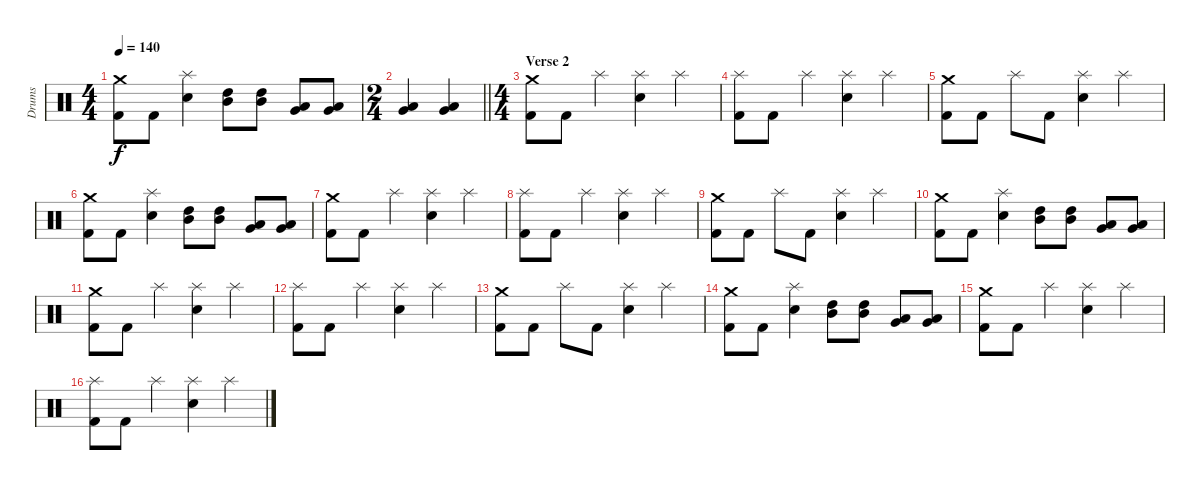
\track ("Drums" "Drums") {instrument percussion}
\staff {score}
\articulation defaults
\ts (4 4)
\tempo 140
\clef neutral
\ks c
("Kick (hit) 2" "Crash medium (hit)").8{dy f} "Kick (hit) 2".8 ("Snare (hit) 2" "Splash (hit)").4 ("High Tom (hit)" "Mid Tom (hit)").8 ("High Tom (hit)" "Mid Tom (hit)").8 ("Low Tom (hit)" "Very Low Tom (hit)").8 ("Low Tom (hit)" "Very Low Tom (hit)").8 |
\ts (2 4)
\barLineRight lightlight
("Low Tom (hit)" "Very Low Tom (hit)").4 ("Low Tom (hit)" "Very Low Tom (hit)").4 |
\ts (4 4)
\section ("" "Verse 2")
("Kick (hit) 2" "Crash medium (hit)").8 "Kick (hit) 2".8 "Splash (hit)".4 ("Snare (hit) 2" "Splash (hit)").4 "Splash (hit)".4 |
("Kick (hit) 2" "Splash (hit)").8 "Kick (hit) 2".8 "Splash (hit)".4 ("Snare (hit) 2" "Splash (hit)").4 "Splash (hit)".4 |
("Kick (hit) 2" "Crash medium (hit)").8 "Kick (hit) 2".8 "Splash (hit)".8 "Kick (hit) 2".8 ("Snare (hit) 2" "Splash (hit)").4 "Splash (hit)".4 |
("Kick (hit) 2" "Crash medium (hit)").8 "Kick (hit) 2".8 ("Snare (hit) 2" "Splash (hit)").4 ("High Tom (hit)" "Mid Tom (hit)").8 ("High Tom (hit)" "Mid Tom (hit)").8 ("Low Tom (hit)" "Very Low Tom (hit)").8 ("Low Tom (hit)" "Very Low Tom (hit)").8 |
("Kick (hit) 2" "Crash medium (hit)").8 "Kick (hit) 2".8 "Splash (hit)".4 ("Snare (hit) 2" "Splash (hit)").4 "Splash (hit)".4 |
("Kick (hit) 2" "Splash (hit)").8 "Kick (hit) 2".8 "Splash (hit)".4 ("Snare (hit) 2" "Splash (hit)").4 "Splash (hit)".4 |
("Kick (hit) 2" "Crash medium (hit)").8 "Kick (hit) 2".8 "Splash (hit)".8 "Kick (hit) 2".8 ("Snare (hit) 2" "Splash (hit)").4 "Splash (hit)".4 |
("Kick (hit) 2" "Crash medium (hit)").8 "Kick (hit) 2".8 ("Snare (hit) 2" "Splash (hit)").4 ("High Tom (hit)" "Mid Tom (hit)").8 ("High Tom (hit)" "Mid Tom (hit)").8 ("Low Tom (hit)" "Very Low Tom (hit)").8 ("Low Tom (hit)" "Very Low Tom (hit)").8 |
("Kick (hit) 2" "Crash medium (hit)").8 "Kick (hit) 2".8 "Splash (hit)".4 ("Snare (hit) 2" "Splash (hit)").4 "Splash (hit)".4 |
("Kick (hit) 2" "Splash (hit)").8 "Kick (hit) 2".8 "Splash (hit)".4 ("Snare (hit) 2" "Splash (hit)").4 "Splash (hit)".4 |
("Kick (hit) 2" "Crash medium (hit)").8 "Kick (hit) 2".8 "Splash (hit)".8 "Kick (hit) 2".8 ("Snare (hit) 2" "Splash (hit)").4 "Splash (hit)".4 |
("Kick (hit) 2" "Crash medium (hit)").8 "Kick (hit) 2".8 ("Snare (hit) 2" "Splash (hit)").4 ("High Tom (hit)" "Mid Tom (hit)").8 ("High Tom (hit)" "Mid Tom (hit)").8 ("Low Tom (hit)" "Very Low Tom (hit)").8 ("Low Tom (hit)" "Very Low Tom (hit)").8 |
("Kick (hit) 2" "Crash medium (hit)").8 "Kick (hit) 2".8 "Splash (hit)".4 ("Snare (hit) 2" "Splash (hit)").4 "Splash (hit)".4 |
("Kick (hit) 2" "Splash (hit)").8 "Kick (hit) 2".8 "Splash (hit)".4 ("Snare (hit) 2" "Splash (hit)").4 "Splash (hit)".4
